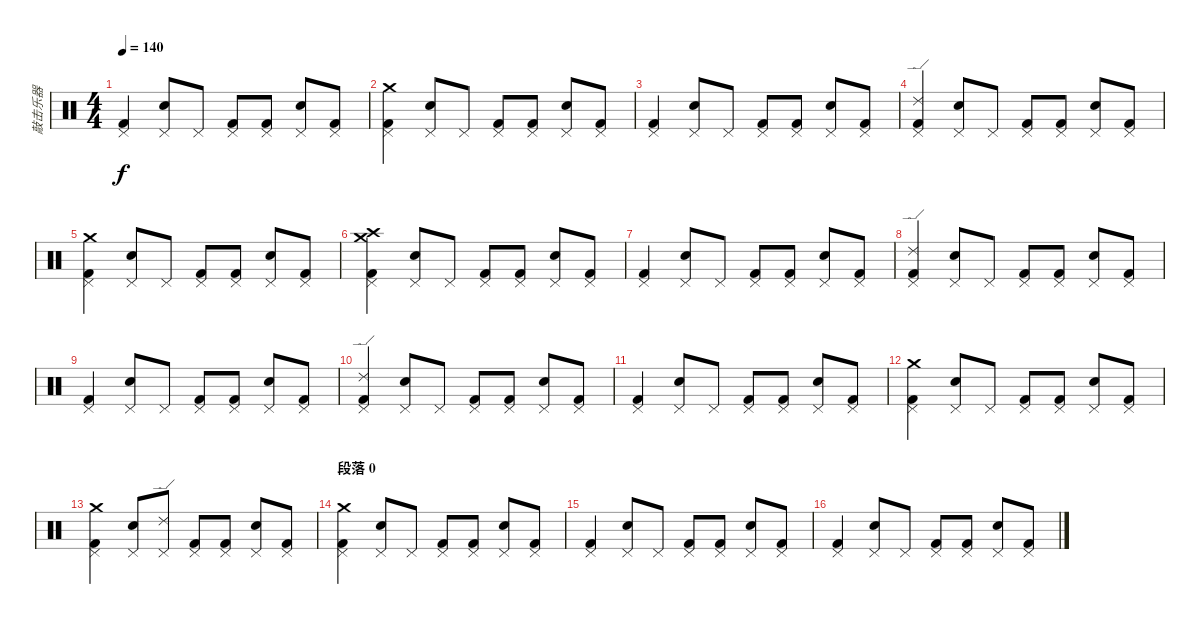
\track ("敲击乐器" "敲击乐器") {instrument percussion}
\staff {score}
\articulation defaults
\ts (4 4)
\tempo 140
\clef neutral
\ks c
("Kick (hit) 2" "Pedal Hi-Hat (hit)").4{dy f} ("Snare (hit) 2" "Pedal Hi-Hat (hit)").8 "Pedal Hi-Hat (hit)".8 ("Kick (hit) 2" "Pedal Hi-Hat (hit)").8 ("Kick (hit) 2" "Pedal Hi-Hat (hit)").8 ("Snare (hit) 2" "Pedal Hi-Hat (hit)").8 ("Kick (hit) 2" "Pedal Hi-Hat (hit)").8 |
("Kick (hit) 2" "Pedal Hi-Hat (hit)" "Crash medium (hit)").4 ("Snare (hit) 2" "Pedal Hi-Hat (hit)").8 "Pedal Hi-Hat (hit)".8 ("Kick (hit) 2" "Pedal Hi-Hat (hit)").8 ("Kick (hit) 2" "Pedal Hi-Hat (hit)").8 ("Snare (hit) 2" "Pedal Hi-Hat (hit)").8 ("Kick (hit) 2" "Pedal Hi-Hat (hit)").8 |
("Kick (hit) 2" "Pedal Hi-Hat (hit)").4 ("Snare (hit) 2" "Pedal Hi-Hat (hit)").8 "Pedal Hi-Hat (hit)".8 ("Kick (hit) 2" "Pedal Hi-Hat (hit)").8 ("Kick (hit) 2" "Pedal Hi-Hat (hit)").8 ("Snare (hit) 2" "Pedal Hi-Hat (hit)").8 ("Kick (hit) 2" "Pedal Hi-Hat (hit)").8 |
("Kick (hit) 2" "Pedal Hi-Hat (hit)" "Ride (edge) 2").4 ("Snare (hit) 2" "Pedal Hi-Hat (hit)").8 "Pedal Hi-Hat (hit)".8 ("Kick (hit) 2" "Pedal Hi-Hat (hit)").8 ("Kick (hit) 2" "Pedal Hi-Hat (hit)").8 ("Snare (hit) 2" "Pedal Hi-Hat (hit)").8 ("Kick (hit) 2" "Pedal Hi-Hat (hit)").8 |
("Kick (hit) 2" "Pedal Hi-Hat (hit)" "Crash medium (hit)").4 ("Snare (hit) 2" "Pedal Hi-Hat (hit)").8 "Pedal Hi-Hat (hit)".8 ("Kick (hit) 2" "Pedal Hi-Hat (hit)").8 ("Kick (hit) 2" "Pedal Hi-Hat (hit)").8 ("Snare (hit) 2" "Pedal Hi-Hat (hit)").8 ("Kick (hit) 2" "Pedal Hi-Hat (hit)").8 |
("Kick (hit) 2" "Pedal Hi-Hat (hit)" "Crash medium (hit)" "Crash high (hit)").4 ("Snare (hit) 2" "Pedal Hi-Hat (hit)").8 "Pedal Hi-Hat (hit)".8 ("Kick (hit) 2" "Pedal Hi-Hat (hit)").8 ("Kick (hit) 2" "Pedal Hi-Hat (hit)").8 ("Snare (hit) 2" "Pedal Hi-Hat (hit)").8 ("Kick (hit) 2" "Pedal Hi-Hat (hit)").8 |
("Kick (hit) 2" "Pedal Hi-Hat (hit)").4 ("Snare (hit) 2" "Pedal Hi-Hat (hit)").8 "Pedal Hi-Hat (hit)".8 ("Kick (hit) 2" "Pedal Hi-Hat (hit)").8 ("Kick (hit) 2" "Pedal Hi-Hat (hit)").8 ("Snare (hit) 2" "Pedal Hi-Hat (hit)").8 ("Kick (hit) 2" "Pedal Hi-Hat (hit)").8 |
("Kick (hit) 2" "Pedal Hi-Hat (hit)" "Ride (edge) 2").4 ("Snare (hit) 2" "Pedal Hi-Hat (hit)").8 "Pedal Hi-Hat (hit)".8 ("Kick (hit) 2" "Pedal Hi-Hat (hit)").8 ("Kick (hit) 2" "Pedal Hi-Hat (hit)").8 ("Snare (hit) 2" "Pedal Hi-Hat (hit)").8 ("Kick (hit) 2" "Pedal Hi-Hat (hit)").8 |
("Kick (hit) 2" "Pedal Hi-Hat (hit)").4 ("Snare (hit) 2" "Pedal Hi-Hat (hit)").8 "Pedal Hi-Hat (hit)".8 ("Kick (hit) 2" "Pedal Hi-Hat (hit)").8 ("Kick (hit) 2" "Pedal Hi-Hat (hit)").8 ("Snare (hit) 2" "Pedal Hi-Hat (hit)").8 ("Kick (hit) 2" "Pedal Hi-Hat (hit)").8 |
("Kick (hit) 2" "Pedal Hi-Hat (hit)" "Ride (edge) 2").4 ("Snare (hit) 2" "Pedal Hi-Hat (hit)").8 "Pedal Hi-Hat (hit)".8 ("Kick (hit) 2" "Pedal Hi-Hat (hit)").8 ("Kick (hit) 2" "Pedal Hi-Hat (hit)").8 ("Snare (hit) 2" "Pedal Hi-Hat (hit)").8 ("Kick (hit) 2" "Pedal Hi-Hat (hit)").8 |
("Kick (hit) 2" "Pedal Hi-Hat (hit)").4 ("Snare (hit) 2" "Pedal Hi-Hat (hit)").8 "Pedal Hi-Hat (hit)".8 ("Kick (hit) 2" "Pedal Hi-Hat (hit)").8 ("Kick (hit) 2" "Pedal Hi-Hat (hit)").8 ("Snare (hit) 2" "Pedal Hi-Hat (hit)").8 ("Kick (hit) 2" "Pedal Hi-Hat (hit)").8 |
("Kick (hit) 2" "Pedal Hi-Hat (hit)" "Crash medium (hit)").4 ("Snare (hit) 2" "Pedal Hi-Hat (hit)").8 "Pedal Hi-Hat (hit)".8 ("Kick (hit) 2" "Pedal Hi-Hat (hit)").8 ("Kick (hit) 2" "Pedal Hi-Hat (hit)").8 ("Snare (hit) 2" "Pedal Hi-Hat (hit)").8 ("Kick (hit) 2" "Pedal Hi-Hat (hit)").8 |
("Kick (hit) 2" "Pedal Hi-Hat (hit)" "Crash medium (hit)").4 ("Snare (hit) 2" "Pedal Hi-Hat (hit)").8 ("Pedal Hi-Hat (hit)" "Ride (edge) 2").8 ("Kick (hit) 2" "Pedal Hi-Hat (hit)").8 ("Kick (hit) 2" "Pedal Hi-Hat (hit)").8 ("Snare (hit) 2" "Pedal Hi-Hat (hit)").8 ("Kick (hit) 2" "Pedal Hi-Hat (hit)").8 |
\section ("" "段落 0")
("Kick (hit) 2" "Pedal Hi-Hat (hit)" "Crash medium (hit)").4 ("Snare (hit) 2" "Pedal Hi-Hat (hit)").8 "Pedal Hi-Hat (hit)".8 ("Kick (hit) 2" "Pedal Hi-Hat (hit)").8 ("Kick (hit) 2" "Pedal Hi-Hat (hit)").8 ("Snare (hit) 2" "Pedal Hi-Hat (hit)").8 ("Kick (hit) 2" "Pedal Hi-Hat (hit)").8 |
("Kick (hit) 2" "Pedal Hi-Hat (hit)").4 ("Snare (hit) 2" "Pedal Hi-Hat (hit)").8 "Pedal Hi-Hat (hit)".8 ("Kick (hit) 2" "Pedal Hi-Hat (hit)").8 ("Kick (hit) 2" "Pedal Hi-Hat (hit)").8 ("Snare (hit) 2" "Pedal Hi-Hat (hit)").8 ("Kick (hit) 2" "Pedal Hi-Hat (hit)").8 |
("Kick (hit) 2" "Pedal Hi-Hat (hit)").4 ("Snare (hit) 2" "Pedal Hi-Hat (hit)").8 "Pedal Hi-Hat (hit)".8 ("Kick (hit) 2" "Pedal Hi-Hat (hit)").8 ("Kick (hit) 2" "Pedal Hi-Hat (hit)").8 ("Snare (hit) 2" "Pedal Hi-Hat (hit)").8 ("Kick (hit) 2" "Pedal Hi-Hat (hit)").8
